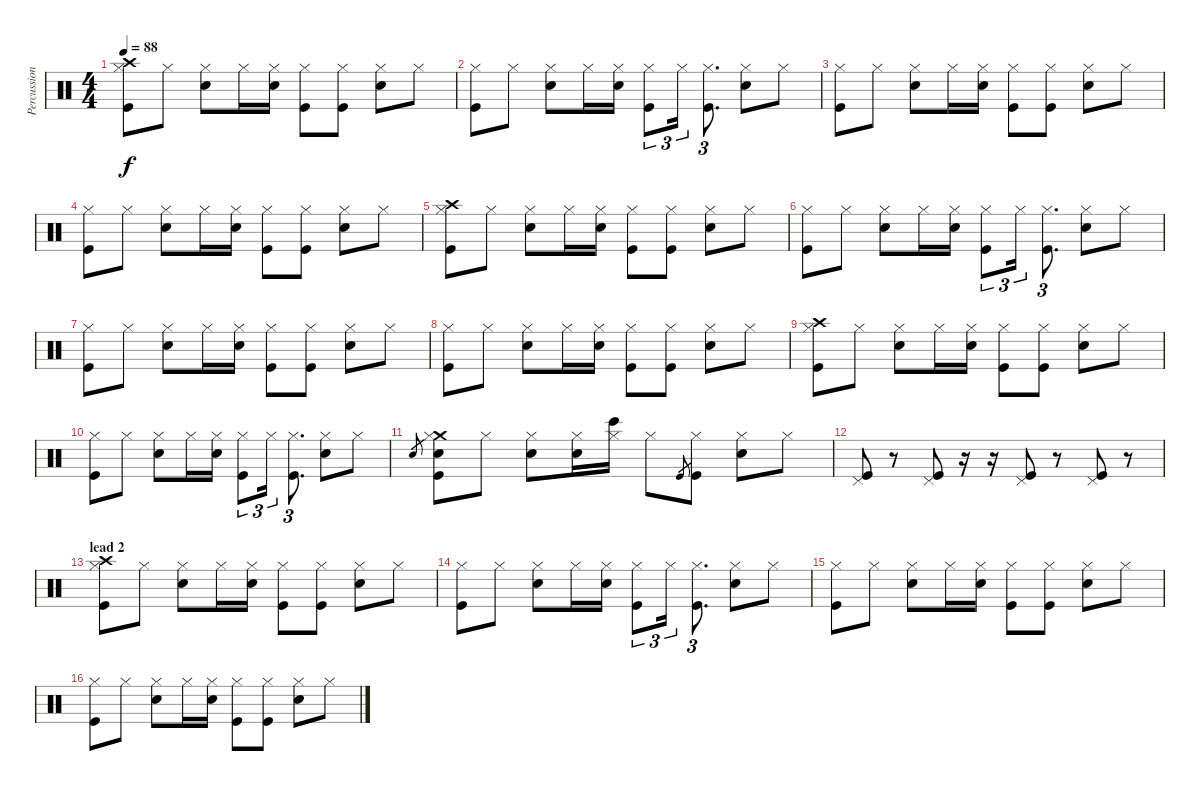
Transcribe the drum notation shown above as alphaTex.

\track ("Percussions" "Percussion") {instrument percussion}
\staff {score}
\articulation defaults
\ts (4 4)
\tempo 88
\clef neutral
\ks c
("Crash high (hit)" "Hi-Hat (closed)" "Kick (hit)").8{dy f} "Hi-Hat (closed)".8 ("Electric Snare (hit)" "Hi-Hat (closed)").8 "Hi-Hat (closed)".16 ("Electric Snare (hit)" "Hi-Hat (closed)").16 ("Hi-Hat (closed)" "Kick (hit)").8 ("Hi-Hat (closed)" "Kick (hit)").8 ("Electric Snare (hit)" "Hi-Hat (closed)").8 "Hi-Hat (closed)".8 |
("Hi-Hat (closed)" "Kick (hit)").8 "Hi-Hat (closed)".8 ("Electric Snare (hit)" "Hi-Hat (closed)").8 "Hi-Hat (closed)".16 ("Electric Snare (hit)" "Hi-Hat (closed)").16 ("Hi-Hat (closed)" "Kick (hit)").8{tu (3 2)} "Hi-Hat (closed)".16{tu (3 2)} ("Hi-Hat (closed)" "Kick (hit)").8{d tu (3 2)} ("Electric Snare (hit)" "Hi-Hat (closed)").8 "Hi-Hat (closed)".8 |
("Hi-Hat (closed)" "Kick (hit)").8 "Hi-Hat (closed)".8 ("Electric Snare (hit)" "Hi-Hat (closed)").8 "Hi-Hat (closed)".16 ("Electric Snare (hit)" "Hi-Hat (closed)").16 ("Hi-Hat (closed)" "Kick (hit)").8 ("Hi-Hat (closed)" "Kick (hit)").8 ("Electric Snare (hit)" "Hi-Hat (closed)").8 "Hi-Hat (closed)".8 |
("Hi-Hat (closed)" "Kick (hit)").8 "Hi-Hat (closed)".8 ("Electric Snare (hit)" "Hi-Hat (closed)").8 "Hi-Hat (closed)".16 ("Electric Snare (hit)" "Hi-Hat (closed)").16 ("Hi-Hat (closed)" "Kick (hit)").8 ("Hi-Hat (closed)" "Kick (hit)").8 ("Electric Snare (hit)" "Hi-Hat (closed)").8 "Hi-Hat (closed)".8 |
("Crash high (hit)" "Hi-Hat (closed)" "Kick (hit)").8 "Hi-Hat (closed)".8 ("Electric Snare (hit)" "Hi-Hat (closed)").8 "Hi-Hat (closed)".16 ("Electric Snare (hit)" "Hi-Hat (closed)").16 ("Hi-Hat (closed)" "Kick (hit)").8 ("Hi-Hat (closed)" "Kick (hit)").8 ("Electric Snare (hit)" "Hi-Hat (closed)").8 "Hi-Hat (closed)".8 |
("Hi-Hat (closed)" "Kick (hit)").8 "Hi-Hat (closed)".8 ("Electric Snare (hit)" "Hi-Hat (closed)").8 "Hi-Hat (closed)".16 ("Electric Snare (hit)" "Hi-Hat (closed)").16 ("Hi-Hat (closed)" "Kick (hit)").8{tu (3 2)} "Hi-Hat (closed)".16{tu (3 2)} ("Hi-Hat (closed)" "Kick (hit)").8{d tu (3 2)} ("Electric Snare (hit)" "Hi-Hat (closed)").8 "Hi-Hat (closed)".8 |
("Hi-Hat (closed)" "Kick (hit)").8 "Hi-Hat (closed)".8 ("Electric Snare (hit)" "Hi-Hat (closed)").8 "Hi-Hat (closed)".16 ("Electric Snare (hit)" "Hi-Hat (closed)").16 ("Hi-Hat (closed)" "Kick (hit)").8 ("Hi-Hat (closed)" "Kick (hit)").8 ("Electric Snare (hit)" "Hi-Hat (closed)").8 "Hi-Hat (closed)".8 |
("Hi-Hat (closed)" "Kick (hit)").8 "Hi-Hat (closed)".8 ("Electric Snare (hit)" "Hi-Hat (closed)").8 "Hi-Hat (closed)".16 ("Electric Snare (hit)" "Hi-Hat (closed)").16 ("Hi-Hat (closed)" "Kick (hit)").8 ("Hi-Hat (closed)" "Kick (hit)").8 ("Electric Snare (hit)" "Hi-Hat (closed)").8 "Hi-Hat (closed)".8 |
("Crash high (hit)" "Hi-Hat (closed)" "Kick (hit)").8 "Hi-Hat (closed)".8 ("Electric Snare (hit)" "Hi-Hat (closed)").8 "Hi-Hat (closed)".16 ("Electric Snare (hit)" "Hi-Hat (closed)").16 ("Hi-Hat (closed)" "Kick (hit)").8 ("Hi-Hat (closed)" "Kick (hit)").8 ("Electric Snare (hit)" "Hi-Hat (closed)").8 "Hi-Hat (closed)".8 |
("Hi-Hat (closed)" "Kick (hit)").8 "Hi-Hat (closed)".8 ("Electric Snare (hit)" "Hi-Hat (closed)").8 "Hi-Hat (closed)".16 ("Electric Snare (hit)" "Hi-Hat (closed)").16 ("Hi-Hat (closed)" "Kick (hit)").8{tu (3 2)} "Hi-Hat (closed)".16{tu (3 2)} ("Hi-Hat (closed)" "Kick (hit)").8{d tu (3 2)} ("Electric Snare (hit)" "Hi-Hat (closed)").8 "Hi-Hat (closed)".8 |
"Electric Snare (hit)".8{gr} ("Crash medium (hit)" "Hi-Hat (closed)" "Electric Snare (hit)" "Kick (hit)").8 "Hi-Hat (closed)".8 ("Electric Snare (hit)" "Hi-Hat (closed)").8 ("Electric Snare (hit)" "Hi-Hat (closed)").16 ("Bongo High (hit)" "Hi-Hat (closed)").16 "Hi-Hat (closed)".8 "Kick (hit)".8{gr} ("Hi-Hat (closed)" "Kick (hit)").8 ("Electric Snare (hit)" "Hi-Hat (closed)").8 "Hi-Hat (closed)".8 |
("Pedal Hi-Hat (hit)" "Kick (hit)").8{volume 15} r.8 ("Pedal Hi-Hat (hit)" "Kick (hit)").8 r.16 r.16 ("Pedal Hi-Hat (hit)" "Kick (hit)").8 r.8 ("Pedal Hi-Hat (hit)" "Kick (hit)").8 r.8 |
\section ("" "lead 2")
("Crash high (hit)" "Hi-Hat (closed)" "Kick (hit)").8{volume 9} "Hi-Hat (closed)".8 ("Electric Snare (hit)" "Hi-Hat (closed)").8 "Hi-Hat (closed)".16 ("Electric Snare (hit)" "Hi-Hat (closed)").16 ("Hi-Hat (closed)" "Kick (hit)").8 ("Hi-Hat (closed)" "Kick (hit)").8 ("Electric Snare (hit)" "Hi-Hat (closed)").8 "Hi-Hat (closed)".8 |
("Hi-Hat (closed)" "Kick (hit)").8 "Hi-Hat (closed)".8 ("Electric Snare (hit)" "Hi-Hat (closed)").8 "Hi-Hat (closed)".16 ("Electric Snare (hit)" "Hi-Hat (closed)").16 ("Hi-Hat (closed)" "Kick (hit)").8{tu (3 2)} "Hi-Hat (closed)".16{tu (3 2)} ("Hi-Hat (closed)" "Kick (hit)").8{d tu (3 2)} ("Electric Snare (hit)" "Hi-Hat (closed)").8 "Hi-Hat (closed)".8 |
("Hi-Hat (closed)" "Kick (hit)").8 "Hi-Hat (closed)".8 ("Electric Snare (hit)" "Hi-Hat (closed)").8 "Hi-Hat (closed)".16 ("Electric Snare (hit)" "Hi-Hat (closed)").16 ("Hi-Hat (closed)" "Kick (hit)").8 ("Hi-Hat (closed)" "Kick (hit)").8 ("Electric Snare (hit)" "Hi-Hat (closed)").8 "Hi-Hat (closed)".8 |
("Hi-Hat (closed)" "Kick (hit)").8 "Hi-Hat (closed)".8 ("Electric Snare (hit)" "Hi-Hat (closed)").8 "Hi-Hat (closed)".16 ("Electric Snare (hit)" "Hi-Hat (closed)").16 ("Hi-Hat (closed)" "Kick (hit)").8 ("Hi-Hat (closed)" "Kick (hit)").8 ("Electric Snare (hit)" "Hi-Hat (closed)").8 "Hi-Hat (closed)".8
